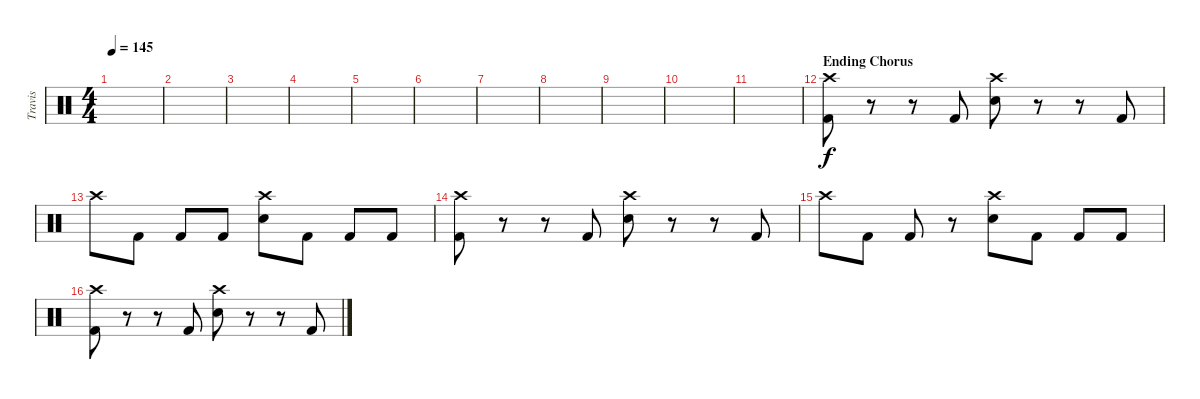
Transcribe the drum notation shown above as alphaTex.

\track ("Travis" "Travis") {instrument percussion}
\staff {score}
\articulation defaults
\ts (4 4)
\tempo 145
\clef neutral
\ks c
|
|
|
|
|
|
|
|
|
|
|
\section ("" "Ending Chorus")
("Crash high (hit)" "Kick (hit) 2").8 r.8 r.8 "Kick (hit) 2".8 ("Crash high (hit)" "Electric Snare (hit)").8 r.8 r.8 "Kick (hit) 2".8 |
"Crash high (hit)".8 "Kick (hit) 2".8 "Kick (hit) 2".8 "Kick (hit) 2".8 ("Crash high (hit)" "Electric Snare (hit)").8 "Kick (hit) 2".8 "Kick (hit) 2".8 "Kick (hit) 2".8 |
("Crash high (hit)" "Kick (hit) 2").8 r.8 r.8 "Kick (hit) 2".8 ("Crash high (hit)" "Electric Snare (hit)").8 r.8 r.8 "Kick (hit) 2".8 |
"Crash high (hit)".8 "Kick (hit) 2".8 "Kick (hit) 2".8 r.8 ("Crash high (hit)" "Electric Snare (hit)").8 "Kick (hit) 2".8 "Kick (hit) 2".8 "Kick (hit) 2".8 |
("Crash high (hit)" "Kick (hit) 2").8 r.8 r.8 "Kick (hit) 2".8 ("Crash high (hit)" "Electric Snare (hit)").8 r.8 r.8 "Kick (hit) 2".8
